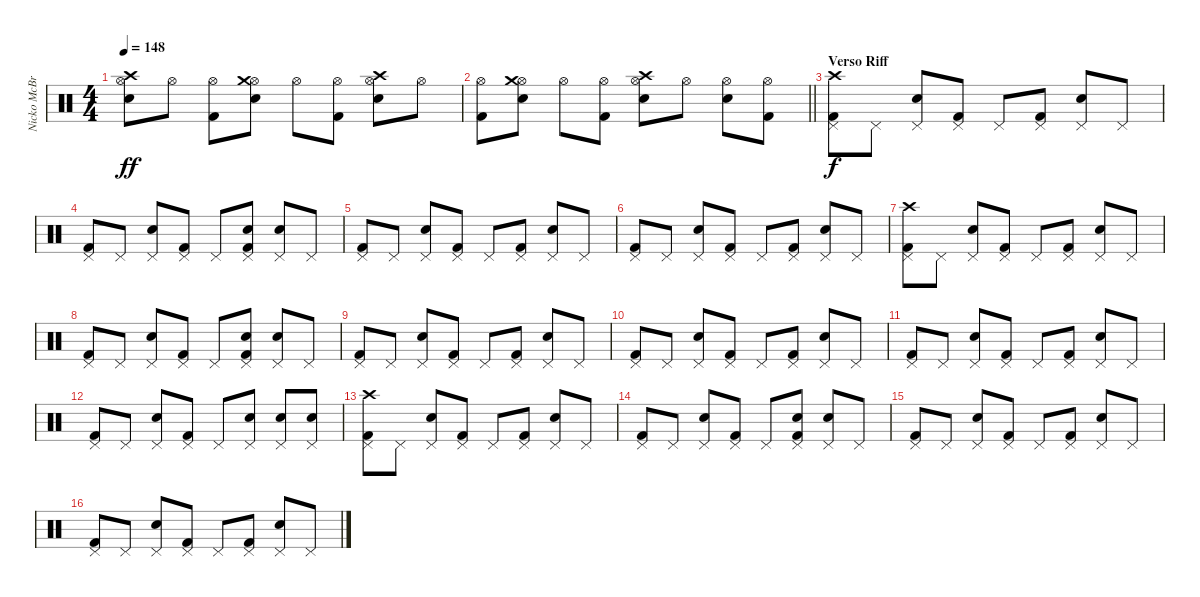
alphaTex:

\track ("Nicko McBrain" "Nicko McBr") {instrument percussion}
\staff {score}
\articulation defaults
\ts (4 4)
\tempo 148
\clef neutral
\ks c
("Snare (hit) 2" "Hi-Hat (open)" "Crash high (hit)").8{dy ff} "Hi-Hat (open)".8 ("Kick (hit) 2" "Hi-Hat (open)").8 ("Snare (hit) 2" "Hi-Hat (open)" "Crash medium (hit)").8 "Hi-Hat (open)".8 ("Kick (hit) 2" "Hi-Hat (open)").8 ("Snare (hit) 2" "Hi-Hat (open)" "Crash high (hit)").8 "Hi-Hat (open)".8 |
\barLineRight lightlight
("Kick (hit) 2" "Hi-Hat (open)").8 ("Snare (hit) 2" "Hi-Hat (open)" "Crash medium (hit)").8 "Hi-Hat (open)".8 ("Kick (hit) 2" "Hi-Hat (open)").8 ("Snare (hit) 2" "Hi-Hat (open)" "Crash high (hit)").8 "Hi-Hat (open)".8 ("Snare (hit) 2" "Hi-Hat (open)").8 ("Kick (hit) 2" "Hi-Hat (open)").8 |
\section ("" "Verso Riff")
("Kick (hit) 2" "Pedal Hi-Hat (hit)" "Crash high (hit)").8{dy f} "Pedal Hi-Hat (hit)".8 ("Snare (hit) 2" "Pedal Hi-Hat (hit)").8 ("Kick (hit) 2" "Pedal Hi-Hat (hit)").8 "Pedal Hi-Hat (hit)".8 ("Kick (hit) 2" "Pedal Hi-Hat (hit)").8 ("Snare (hit) 2" "Pedal Hi-Hat (hit)").8 "Pedal Hi-Hat (hit)".8 |
("Kick (hit) 2" "Pedal Hi-Hat (hit)").8 "Pedal Hi-Hat (hit)".8 ("Snare (hit) 2" "Pedal Hi-Hat (hit)").8 ("Kick (hit) 2" "Pedal Hi-Hat (hit)").8 "Pedal Hi-Hat (hit)".8 ("Kick (hit) 2" "Pedal Hi-Hat (hit)" "Snare (hit) 2").8 ("Snare (hit) 2" "Pedal Hi-Hat (hit)").8 "Pedal Hi-Hat (hit)".8 |
("Kick (hit) 2" "Pedal Hi-Hat (hit)").8 "Pedal Hi-Hat (hit)".8 ("Snare (hit) 2" "Pedal Hi-Hat (hit)").8 ("Kick (hit) 2" "Pedal Hi-Hat (hit)").8 "Pedal Hi-Hat (hit)".8 ("Kick (hit) 2" "Pedal Hi-Hat (hit)").8 ("Snare (hit) 2" "Pedal Hi-Hat (hit)").8 "Pedal Hi-Hat (hit)".8 |
("Kick (hit) 2" "Pedal Hi-Hat (hit)").8 "Pedal Hi-Hat (hit)".8 ("Snare (hit) 2" "Pedal Hi-Hat (hit)").8 ("Kick (hit) 2" "Pedal Hi-Hat (hit)").8 "Pedal Hi-Hat (hit)".8 ("Kick (hit) 2" "Pedal Hi-Hat (hit)").8 ("Snare (hit) 2" "Pedal Hi-Hat (hit)").8 "Pedal Hi-Hat (hit)".8 |
("Kick (hit) 2" "Pedal Hi-Hat (hit)" "Crash high (hit)").8 "Pedal Hi-Hat (hit)".8 ("Snare (hit) 2" "Pedal Hi-Hat (hit)").8 ("Kick (hit) 2" "Pedal Hi-Hat (hit)").8 "Pedal Hi-Hat (hit)".8 ("Kick (hit) 2" "Pedal Hi-Hat (hit)").8 ("Snare (hit) 2" "Pedal Hi-Hat (hit)").8 "Pedal Hi-Hat (hit)".8 |
("Kick (hit) 2" "Pedal Hi-Hat (hit)").8 "Pedal Hi-Hat (hit)".8 ("Snare (hit) 2" "Pedal Hi-Hat (hit)").8 ("Kick (hit) 2" "Pedal Hi-Hat (hit)").8 "Pedal Hi-Hat (hit)".8 ("Kick (hit) 2" "Pedal Hi-Hat (hit)" "Snare (hit) 2").8 ("Snare (hit) 2" "Pedal Hi-Hat (hit)").8 "Pedal Hi-Hat (hit)".8 |
("Kick (hit) 2" "Pedal Hi-Hat (hit)").8 "Pedal Hi-Hat (hit)".8 ("Snare (hit) 2" "Pedal Hi-Hat (hit)").8 ("Kick (hit) 2" "Pedal Hi-Hat (hit)").8 "Pedal Hi-Hat (hit)".8 ("Kick (hit) 2" "Pedal Hi-Hat (hit)").8 ("Snare (hit) 2" "Pedal Hi-Hat (hit)").8 "Pedal Hi-Hat (hit)".8 |
("Kick (hit) 2" "Pedal Hi-Hat (hit)").8 "Pedal Hi-Hat (hit)".8 ("Snare (hit) 2" "Pedal Hi-Hat (hit)").8 ("Kick (hit) 2" "Pedal Hi-Hat (hit)").8 "Pedal Hi-Hat (hit)".8 ("Kick (hit) 2" "Pedal Hi-Hat (hit)").8 ("Snare (hit) 2" "Pedal Hi-Hat (hit)").8 "Pedal Hi-Hat (hit)".8 |
("Kick (hit) 2" "Pedal Hi-Hat (hit)").8 "Pedal Hi-Hat (hit)".8 ("Snare (hit) 2" "Pedal Hi-Hat (hit)").8 ("Kick (hit) 2" "Pedal Hi-Hat (hit)").8 "Pedal Hi-Hat (hit)".8 ("Kick (hit) 2" "Pedal Hi-Hat (hit)").8 ("Snare (hit) 2" "Pedal Hi-Hat (hit)").8 "Pedal Hi-Hat (hit)".8 |
("Kick (hit) 2" "Pedal Hi-Hat (hit)").8 "Pedal Hi-Hat (hit)".8 ("Snare (hit) 2" "Pedal Hi-Hat (hit)").8 ("Kick (hit) 2" "Pedal Hi-Hat (hit)").8 "Pedal Hi-Hat (hit)".8 ("Snare (hit) 2" "Pedal Hi-Hat (hit)").8 ("Snare (hit) 2" "Pedal Hi-Hat (hit)").8 ("Snare (hit) 2" "Pedal Hi-Hat (hit)").8 |
("Kick (hit) 2" "Pedal Hi-Hat (hit)" "Crash high (hit)").8 "Pedal Hi-Hat (hit)".8 ("Snare (hit) 2" "Pedal Hi-Hat (hit)").8 ("Kick (hit) 2" "Pedal Hi-Hat (hit)").8 "Pedal Hi-Hat (hit)".8 ("Kick (hit) 2" "Pedal Hi-Hat (hit)").8 ("Snare (hit) 2" "Pedal Hi-Hat (hit)").8 "Pedal Hi-Hat (hit)".8 |
("Kick (hit) 2" "Pedal Hi-Hat (hit)").8 "Pedal Hi-Hat (hit)".8 ("Snare (hit) 2" "Pedal Hi-Hat (hit)").8 ("Kick (hit) 2" "Pedal Hi-Hat (hit)").8 "Pedal Hi-Hat (hit)".8 ("Kick (hit) 2" "Pedal Hi-Hat (hit)" "Snare (hit) 2").8 ("Snare (hit) 2" "Pedal Hi-Hat (hit)").8 "Pedal Hi-Hat (hit)".8 |
("Kick (hit) 2" "Pedal Hi-Hat (hit)").8 "Pedal Hi-Hat (hit)".8 ("Snare (hit) 2" "Pedal Hi-Hat (hit)").8 ("Kick (hit) 2" "Pedal Hi-Hat (hit)").8 "Pedal Hi-Hat (hit)".8 ("Kick (hit) 2" "Pedal Hi-Hat (hit)").8 ("Snare (hit) 2" "Pedal Hi-Hat (hit)").8 "Pedal Hi-Hat (hit)".8 |
("Kick (hit) 2" "Pedal Hi-Hat (hit)").8 "Pedal Hi-Hat (hit)".8 ("Snare (hit) 2" "Pedal Hi-Hat (hit)").8 ("Kick (hit) 2" "Pedal Hi-Hat (hit)").8 "Pedal Hi-Hat (hit)".8 ("Kick (hit) 2" "Pedal Hi-Hat (hit)").8 ("Snare (hit) 2" "Pedal Hi-Hat (hit)").8 "Pedal Hi-Hat (hit)".8
